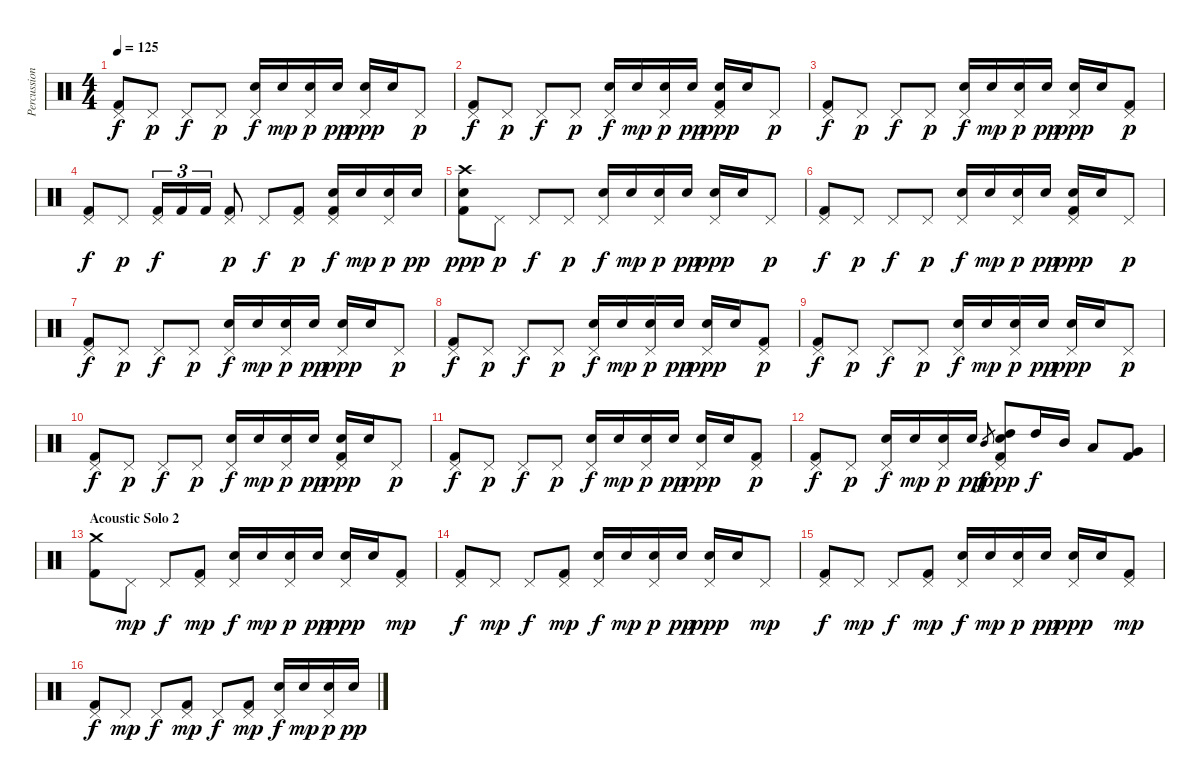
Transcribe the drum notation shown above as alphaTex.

\track ("Percussion" "Percussion") {instrument percussion}
\staff {score}
\articulation defaults
\ts (4 4)
\tempo 125
\clef neutral
\ks c
("Pedal Hi-Hat (hit)" "Kick (hit) 2").8{dy f} "Pedal Hi-Hat (hit)".8{dy p} "Pedal Hi-Hat (hit)".8{dy f} "Pedal Hi-Hat (hit)".8{dy p} ("Pedal Hi-Hat (hit)" "Electric Snare (hit)").16{dy f} "Electric Snare (hit)".16{dy mp} ("Pedal Hi-Hat (hit)" "Electric Snare (hit)").16{dy p} "Electric Snare (hit)".16{dy pp} ("Pedal Hi-Hat (hit)" "Electric Snare (hit)").16{dy ppp} "Electric Snare (hit)".16 "Pedal Hi-Hat (hit)".8{dy p} |
("Pedal Hi-Hat (hit)" "Kick (hit) 2").8{dy f} "Pedal Hi-Hat (hit)".8{dy p} "Pedal Hi-Hat (hit)".8{dy f} "Pedal Hi-Hat (hit)".8{dy p} ("Pedal Hi-Hat (hit)" "Electric Snare (hit)").16{dy f} "Electric Snare (hit)".16{dy mp} ("Pedal Hi-Hat (hit)" "Electric Snare (hit)").16{dy p} "Electric Snare (hit)".16{dy pp} ("Pedal Hi-Hat (hit)" "Electric Snare (hit)" "Kick (hit) 2").16{dy ppp} "Electric Snare (hit)".16 "Pedal Hi-Hat (hit)".8{dy p} |
("Pedal Hi-Hat (hit)" "Kick (hit) 2").8{dy f} "Pedal Hi-Hat (hit)".8{dy p} "Pedal Hi-Hat (hit)".8{dy f} "Pedal Hi-Hat (hit)".8{dy p} ("Pedal Hi-Hat (hit)" "Electric Snare (hit)").16{dy f} "Electric Snare (hit)".16{dy mp} ("Pedal Hi-Hat (hit)" "Electric Snare (hit)").16{dy p} "Electric Snare (hit)".16{dy pp} ("Pedal Hi-Hat (hit)" "Electric Snare (hit)").16{dy ppp} "Electric Snare (hit)".16 ("Pedal Hi-Hat (hit)" "Kick (hit) 2").8{dy p} |
("Pedal Hi-Hat (hit)" "Kick (hit) 2").8{dy f} "Pedal Hi-Hat (hit)".8{dy p} ("Pedal Hi-Hat (hit)" "Kick (hit) 2").16{tu (3 2) dy f} "Kick (hit) 2".16{tu (3 2)} "Kick (hit) 2".16{tu (3 2)} ("Pedal Hi-Hat (hit)" "Kick (hit) 2").8{dy p} "Pedal Hi-Hat (hit)".8{dy f} ("Pedal Hi-Hat (hit)" "Kick (hit) 2").8{dy p} ("Pedal Hi-Hat (hit)" "Electric Snare (hit)" "Kick (hit) 2").16{dy f} "Electric Snare (hit)".16{dy mp} ("Pedal Hi-Hat (hit)" "Electric Snare (hit)").16{dy p} "Electric Snare (hit)".16{dy pp} |
("Crash high (hit)" "Electric Snare (hit)" "Kick (hit) 2").8{dy ppp} "Pedal Hi-Hat (hit)".8{dy p} "Pedal Hi-Hat (hit)".8{dy f} "Pedal Hi-Hat (hit)".8{dy p} ("Pedal Hi-Hat (hit)" "Electric Snare (hit)").16{dy f} "Electric Snare (hit)".16{dy mp} ("Pedal Hi-Hat (hit)" "Electric Snare (hit)").16{dy p} "Electric Snare (hit)".16{dy pp} ("Pedal Hi-Hat (hit)" "Electric Snare (hit)").16{dy ppp} "Electric Snare (hit)".16 "Pedal Hi-Hat (hit)".8{dy p} |
("Pedal Hi-Hat (hit)" "Kick (hit) 2").8{dy f} "Pedal Hi-Hat (hit)".8{dy p} "Pedal Hi-Hat (hit)".8{dy f} "Pedal Hi-Hat (hit)".8{dy p} ("Pedal Hi-Hat (hit)" "Electric Snare (hit)").16{dy f} "Electric Snare (hit)".16{dy mp} ("Pedal Hi-Hat (hit)" "Electric Snare (hit)").16{dy p} "Electric Snare (hit)".16{dy pp} ("Pedal Hi-Hat (hit)" "Electric Snare (hit)" "Kick (hit) 2").16{dy ppp} "Electric Snare (hit)".16 "Pedal Hi-Hat (hit)".8{dy p} |
("Pedal Hi-Hat (hit)" "Kick (hit) 2").8{dy f} "Pedal Hi-Hat (hit)".8{dy p} "Pedal Hi-Hat (hit)".8{dy f} "Pedal Hi-Hat (hit)".8{dy p} ("Pedal Hi-Hat (hit)" "Electric Snare (hit)").16{dy f} "Electric Snare (hit)".16{dy mp} ("Pedal Hi-Hat (hit)" "Electric Snare (hit)").16{dy p} "Electric Snare (hit)".16{dy pp} ("Pedal Hi-Hat (hit)" "Electric Snare (hit)").16{dy ppp} "Electric Snare (hit)".16 "Pedal Hi-Hat (hit)".8{dy p} |
("Pedal Hi-Hat (hit)" "Kick (hit) 2").8{dy f} "Pedal Hi-Hat (hit)".8{dy p} "Pedal Hi-Hat (hit)".8{dy f} "Pedal Hi-Hat (hit)".8{dy p} ("Pedal Hi-Hat (hit)" "Electric Snare (hit)").16{dy f} "Electric Snare (hit)".16{dy mp} ("Pedal Hi-Hat (hit)" "Electric Snare (hit)").16{dy p} "Electric Snare (hit)".16{dy pp} ("Pedal Hi-Hat (hit)" "Electric Snare (hit)").16{dy ppp} "Electric Snare (hit)".16 ("Pedal Hi-Hat (hit)" "Kick (hit) 2").8{dy p} |
("Pedal Hi-Hat (hit)" "Kick (hit) 2").8{dy f} "Pedal Hi-Hat (hit)".8{dy p} "Pedal Hi-Hat (hit)".8{dy f} "Pedal Hi-Hat (hit)".8{dy p} ("Pedal Hi-Hat (hit)" "Electric Snare (hit)").16{dy f} "Electric Snare (hit)".16{dy mp} ("Pedal Hi-Hat (hit)" "Electric Snare (hit)").16{dy p} "Electric Snare (hit)".16{dy pp} ("Pedal Hi-Hat (hit)" "Electric Snare (hit)").16{dy ppp} "Electric Snare (hit)".16 "Pedal Hi-Hat (hit)".8{dy p} |
("Pedal Hi-Hat (hit)" "Kick (hit) 2").8{dy f} "Pedal Hi-Hat (hit)".8{dy p} "Pedal Hi-Hat (hit)".8{dy f} "Pedal Hi-Hat (hit)".8{dy p} ("Pedal Hi-Hat (hit)" "Electric Snare (hit)").16{dy f} "Electric Snare (hit)".16{dy mp} ("Pedal Hi-Hat (hit)" "Electric Snare (hit)").16{dy p} "Electric Snare (hit)".16{dy pp} ("Pedal Hi-Hat (hit)" "Electric Snare (hit)" "Kick (hit) 2").16{dy ppp} "Electric Snare (hit)".16 "Pedal Hi-Hat (hit)".8{dy p} |
("Pedal Hi-Hat (hit)" "Kick (hit) 2").8{dy f} "Pedal Hi-Hat (hit)".8{dy p} "Pedal Hi-Hat (hit)".8{dy f} "Pedal Hi-Hat (hit)".8{dy p} ("Pedal Hi-Hat (hit)" "Electric Snare (hit)").16{dy f} "Electric Snare (hit)".16{dy mp} ("Pedal Hi-Hat (hit)" "Electric Snare (hit)").16{dy p} "Electric Snare (hit)".16{dy pp} ("Pedal Hi-Hat (hit)" "Electric Snare (hit)").16{dy ppp} "Electric Snare (hit)".16 ("Pedal Hi-Hat (hit)" "Kick (hit) 2").8{dy p} |
("Pedal Hi-Hat (hit)" "Kick (hit) 2").8{dy f} "Pedal Hi-Hat (hit)".8{dy p} ("Pedal Hi-Hat (hit)" "Electric Snare (hit)").16{dy f} "Electric Snare (hit)".16{dy mp} ("Pedal Hi-Hat (hit)" "Electric Snare (hit)").16{dy p} "Electric Snare (hit)".16{dy pp} "Mid Tom (hit)".8{gr dy f} ("Pedal Hi-Hat (hit)" "High Tom (hit)" "Snare (hit)" "Kick (hit) 2").8{dy ppp} "High Tom (hit)".16{dy f} "Mid Tom (hit)".16 "Low Tom (hit)".8 ("Very Low Tom (hit)" "Kick (hit) 2").8 |
\section ("" "Acoustic Solo 2")
("Crash medium (hit)" "Kick (hit) 2").8 "Pedal Hi-Hat (hit)".8{dy mp} "Pedal Hi-Hat (hit)".8{dy f} ("Pedal Hi-Hat (hit)" "Kick (hit) 2").8{dy mp} ("Pedal Hi-Hat (hit)" "Electric Snare (hit)").16{dy f} "Electric Snare (hit)".16{dy mp} ("Pedal Hi-Hat (hit)" "Electric Snare (hit)").16{dy p} "Electric Snare (hit)".16{dy pp} ("Pedal Hi-Hat (hit)" "Electric Snare (hit)").16{dy ppp} "Electric Snare (hit)".16 ("Pedal Hi-Hat (hit)" "Kick (hit) 2").8{dy mp} |
("Pedal Hi-Hat (hit)" "Kick (hit) 2").8{dy f} "Pedal Hi-Hat (hit)".8{dy mp} "Pedal Hi-Hat (hit)".8{dy f} ("Pedal Hi-Hat (hit)" "Kick (hit) 2").8{dy mp} ("Pedal Hi-Hat (hit)" "Electric Snare (hit)").16{dy f} "Electric Snare (hit)".16{dy mp} ("Pedal Hi-Hat (hit)" "Electric Snare (hit)").16{dy p} "Electric Snare (hit)".16{dy pp} ("Pedal Hi-Hat (hit)" "Electric Snare (hit)").16{dy ppp} "Electric Snare (hit)".16 "Pedal Hi-Hat (hit)".8{dy mp} |
("Pedal Hi-Hat (hit)" "Kick (hit) 2").8{dy f} "Pedal Hi-Hat (hit)".8{dy mp} "Pedal Hi-Hat (hit)".8{dy f} ("Pedal Hi-Hat (hit)" "Kick (hit) 2").8{dy mp} ("Pedal Hi-Hat (hit)" "Electric Snare (hit)").16{dy f} "Electric Snare (hit)".16{dy mp} ("Pedal Hi-Hat (hit)" "Electric Snare (hit)").16{dy p} "Electric Snare (hit)".16{dy pp} ("Pedal Hi-Hat (hit)" "Electric Snare (hit)").16{dy ppp} "Electric Snare (hit)".16 ("Pedal Hi-Hat (hit)" "Kick (hit) 2").8{dy mp} |
("Pedal Hi-Hat (hit)" "Kick (hit) 2").8{dy f} "Pedal Hi-Hat (hit)".8{dy mp} "Pedal Hi-Hat (hit)".8{dy f} ("Pedal Hi-Hat (hit)" "Kick (hit) 2").8{dy mp} "Pedal Hi-Hat (hit)".8{dy f} ("Pedal Hi-Hat (hit)" "Kick (hit) 2").8{dy mp} ("Pedal Hi-Hat (hit)" "Electric Snare (hit)").16{dy f} "Electric Snare (hit)".16{dy mp} ("Pedal Hi-Hat (hit)" "Electric Snare (hit)").16{dy p} "Electric Snare (hit)".16{dy pp}
